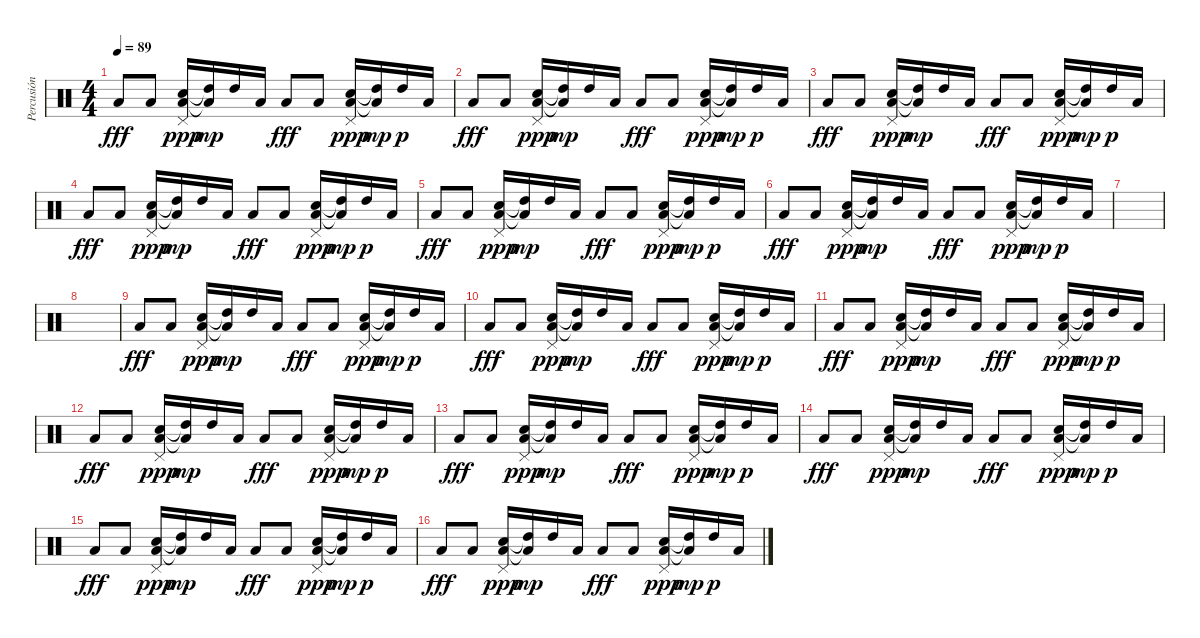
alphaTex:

\track ("Percusión" "Percusión") {instrument percussion}
\staff {score}
\articulation defaults
\ts (4 4)
\tempo 89
\clef neutral
\ks c "Low Floor Tom (hit)".8{dy fff} "Low Floor Tom (hit)".8
("Electric Snare (hit)" "Low Floor Tom (hit)" "Pedal Hi-Hat (hit)").16{dy ppp} ("High Tom (hit)"{t} "Low Floor Tom (hit)"{t}).16{dy mp} "High Tom (hit)".16 "Low Tom (hit)".16 "Low Floor Tom (hit)".8{dy fff} "Low Floor Tom (hit)".8 ("Electric Snare (hit)" "Low Floor Tom (hit)" "Pedal Hi-Hat (hit)").16{dy ppp} ("High Tom (hit)"{t} "Low Floor Tom (hit)"{t}).16{dy mp} "High Tom (hit)".16{dy p} "Low Tom (hit)".16 |
"Low Floor Tom (hit)".8{dy fff} "Low Floor Tom (hit)".8 ("Electric Snare (hit)" "Low Floor Tom (hit)" "Pedal Hi-Hat (hit)").16{dy ppp} ("High Tom (hit)"{t} "Low Floor Tom (hit)"{t}).16{dy mp} "High Tom (hit)".16 "Low Tom (hit)".16 "Low Floor Tom (hit)".8{dy fff} "Low Floor Tom (hit)".8 ("Electric Snare (hit)" "Low Floor Tom (hit)" "Pedal Hi-Hat (hit)").16{dy ppp} ("High Tom (hit)"{t} "Low Floor Tom (hit)"{t}).16{dy mp} "High Tom (hit)".16{dy p} "Low Tom (hit)".16 |
"Low Floor Tom (hit)".8{dy fff} "Low Floor Tom (hit)".8 ("Electric Snare (hit)" "Low Floor Tom (hit)" "Pedal Hi-Hat (hit)").16{dy ppp} ("High Tom (hit)"{t} "Low Floor Tom (hit)"{t}).16{dy mp} "High Tom (hit)".16 "Low Tom (hit)".16 "Low Floor Tom (hit)".8{dy fff} "Low Floor Tom (hit)".8 ("Electric Snare (hit)" "Low Floor Tom (hit)" "Pedal Hi-Hat (hit)").16{dy ppp} ("High Tom (hit)"{t} "Low Floor Tom (hit)"{t}).16{dy mp} "High Tom (hit)".16{dy p} "Low Tom (hit)".16 |
"Low Floor Tom (hit)".8{dy fff} "Low Floor Tom (hit)".8 ("Electric Snare (hit)" "Low Floor Tom (hit)" "Pedal Hi-Hat (hit)").16{dy ppp} ("High Tom (hit)"{t} "Low Floor Tom (hit)"{t}).16{dy mp} "High Tom (hit)".16 "Low Tom (hit)".16 "Low Floor Tom (hit)".8{dy fff} "Low Floor Tom (hit)".8 ("Electric Snare (hit)" "Low Floor Tom (hit)" "Pedal Hi-Hat (hit)").16{dy ppp} ("High Tom (hit)"{t} "Low Floor Tom (hit)"{t}).16{dy mp} "High Tom (hit)".16{dy p} "Low Tom (hit)".16 |
"Low Floor Tom (hit)".8{dy fff} "Low Floor Tom (hit)".8 ("Electric Snare (hit)" "Low Floor Tom (hit)" "Pedal Hi-Hat (hit)").16{dy ppp} ("High Tom (hit)"{t} "Low Floor Tom (hit)"{t}).16{dy mp} "High Tom (hit)".16 "Low Tom (hit)".16 "Low Floor Tom (hit)".8{dy fff} "Low Floor Tom (hit)".8 ("Electric Snare (hit)" "Low Floor Tom (hit)" "Pedal Hi-Hat (hit)").16{dy ppp} ("High Tom (hit)"{t} "Low Floor Tom (hit)"{t}).16{dy mp} "High Tom (hit)".16{dy p} "Low Tom (hit)".16 |
"Low Floor Tom (hit)".8{dy fff} "Low Floor Tom (hit)".8 ("Electric Snare (hit)" "Low Floor Tom (hit)" "Pedal Hi-Hat (hit)").16{dy ppp} ("High Tom (hit)"{t} "Low Floor Tom (hit)"{t}).16{dy mp} "High Tom (hit)".16 "Low Tom (hit)".16 "Low Floor Tom (hit)".8{dy fff} "Low Floor Tom (hit)".8 ("Electric Snare (hit)" "Low Floor Tom (hit)" "Pedal Hi-Hat (hit)").16{dy ppp} ("High Tom (hit)"{t} "Low Floor Tom (hit)"{t}).16{dy mp} "High Tom (hit)".16{dy p} "Low Tom (hit)".16 |
|
|
"Low Floor Tom (hit)".8{dy fff volume 16} "Low Floor Tom (hit)".8 ("Electric Snare (hit)" "Low Floor Tom (hit)" "Pedal Hi-Hat (hit)").16{dy ppp} ("High Tom (hit)"{t} "Low Floor Tom (hit)"{t}).16{dy mp} "High Tom (hit)".16 "Low Tom (hit)".16 "Low Floor Tom (hit)".8{dy fff} "Low Floor Tom (hit)".8 ("Electric Snare (hit)" "Low Floor Tom (hit)" "Pedal Hi-Hat (hit)").16{dy ppp} ("High Tom (hit)"{t} "Low Floor Tom (hit)"{t}).16{dy mp} "High Tom (hit)".16{dy p} "Low Tom (hit)".16 |
"Low Floor Tom (hit)".8{dy fff} "Low Floor Tom (hit)".8 ("Electric Snare (hit)" "Low Floor Tom (hit)" "Pedal Hi-Hat (hit)").16{dy ppp} ("High Tom (hit)"{t} "Low Floor Tom (hit)"{t}).16{dy mp} "High Tom (hit)".16 "Low Tom (hit)".16 "Low Floor Tom (hit)".8{dy fff} "Low Floor Tom (hit)".8 ("Electric Snare (hit)" "Low Floor Tom (hit)" "Pedal Hi-Hat (hit)").16{dy ppp} ("High Tom (hit)"{t} "Low Floor Tom (hit)"{t}).16{dy mp} "High Tom (hit)".16{dy p} "Low Tom (hit)".16 |
"Low Floor Tom (hit)".8{dy fff} "Low Floor Tom (hit)".8 ("Electric Snare (hit)" "Low Floor Tom (hit)" "Pedal Hi-Hat (hit)").16{dy ppp} ("High Tom (hit)"{t} "Low Floor Tom (hit)"{t}).16{dy mp} "High Tom (hit)".16 "Low Tom (hit)".16 "Low Floor Tom (hit)".8{dy fff} "Low Floor Tom (hit)".8 ("Electric Snare (hit)" "Low Floor Tom (hit)" "Pedal Hi-Hat (hit)").16{dy ppp} ("High Tom (hit)"{t} "Low Floor Tom (hit)"{t}).16{dy mp} "High Tom (hit)".16{dy p} "Low Tom (hit)".16 |
"Low Floor Tom (hit)".8{dy fff} "Low Floor Tom (hit)".8 ("Electric Snare (hit)" "Low Floor Tom (hit)" "Pedal Hi-Hat (hit)").16{dy ppp} ("High Tom (hit)"{t} "Low Floor Tom (hit)"{t}).16{dy mp} "High Tom (hit)".16 "Low Tom (hit)".16 "Low Floor Tom (hit)".8{dy fff} "Low Floor Tom (hit)".8 ("Electric Snare (hit)" "Low Floor Tom (hit)" "Pedal Hi-Hat (hit)").16{dy ppp} ("High Tom (hit)"{t} "Low Floor Tom (hit)"{t}).16{dy mp} "High Tom (hit)".16{dy p} "Low Tom (hit)".16 |
"Low Floor Tom (hit)".8{dy fff} "Low Floor Tom (hit)".8 ("Electric Snare (hit)" "Low Floor Tom (hit)" "Pedal Hi-Hat (hit)").16{dy ppp} ("High Tom (hit)"{t} "Low Floor Tom (hit)"{t}).16{dy mp} "High Tom (hit)".16 "Low Tom (hit)".16 "Low Floor Tom (hit)".8{dy fff} "Low Floor Tom (hit)".8 ("Electric Snare (hit)" "Low Floor Tom (hit)" "Pedal Hi-Hat (hit)").16{dy ppp} ("High Tom (hit)"{t} "Low Floor Tom (hit)"{t}).16{dy mp} "High Tom (hit)".16{dy p} "Low Tom (hit)".16 |
"Low Floor Tom (hit)".8{dy fff} "Low Floor Tom (hit)".8 ("Electric Snare (hit)" "Low Floor Tom (hit)" "Pedal Hi-Hat (hit)").16{dy ppp} ("High Tom (hit)"{t} "Low Floor Tom (hit)"{t}).16{dy mp} "High Tom (hit)".16 "Low Tom (hit)".16 "Low Floor Tom (hit)".8{dy fff} "Low Floor Tom (hit)".8 ("Electric Snare (hit)" "Low Floor Tom (hit)" "Pedal Hi-Hat (hit)").16{dy ppp} ("High Tom (hit)"{t} "Low Floor Tom (hit)"{t}).16{dy mp} "High Tom (hit)".16{dy p} "Low Tom (hit)".16 |
"Low Floor Tom (hit)".8{dy fff} "Low Floor Tom (hit)".8 ("Electric Snare (hit)" "Low Floor Tom (hit)" "Pedal Hi-Hat (hit)").16{dy ppp} ("High Tom (hit)"{t} "Low Floor Tom (hit)"{t}).16{dy mp} "High Tom (hit)".16 "Low Tom (hit)".16 "Low Floor Tom (hit)".8{dy fff} "Low Floor Tom (hit)".8 ("Electric Snare (hit)" "Low Floor Tom (hit)" "Pedal Hi-Hat (hit)").16{dy ppp} ("High Tom (hit)"{t} "Low Floor Tom (hit)"{t}).16{dy mp} "High Tom (hit)".16{dy p} "Low Tom (hit)".16 |
"Low Floor Tom (hit)".8{dy fff} "Low Floor Tom (hit)".8 ("Electric Snare (hit)" "Low Floor Tom (hit)" "Pedal Hi-Hat (hit)").16{dy ppp} ("High Tom (hit)"{t} "Low Floor Tom (hit)"{t}).16{dy mp} "High Tom (hit)".16 "Low Tom (hit)".16 "Low Floor Tom (hit)".8{dy fff} "Low Floor Tom (hit)".8 ("Electric Snare (hit)" "Low Floor Tom (hit)" "Pedal Hi-Hat (hit)").16{dy ppp} ("High Tom (hit)"{t} "Low Floor Tom (hit)"{t}).16{dy mp} "High Tom (hit)".16{dy p} "Low Tom (hit)".16
